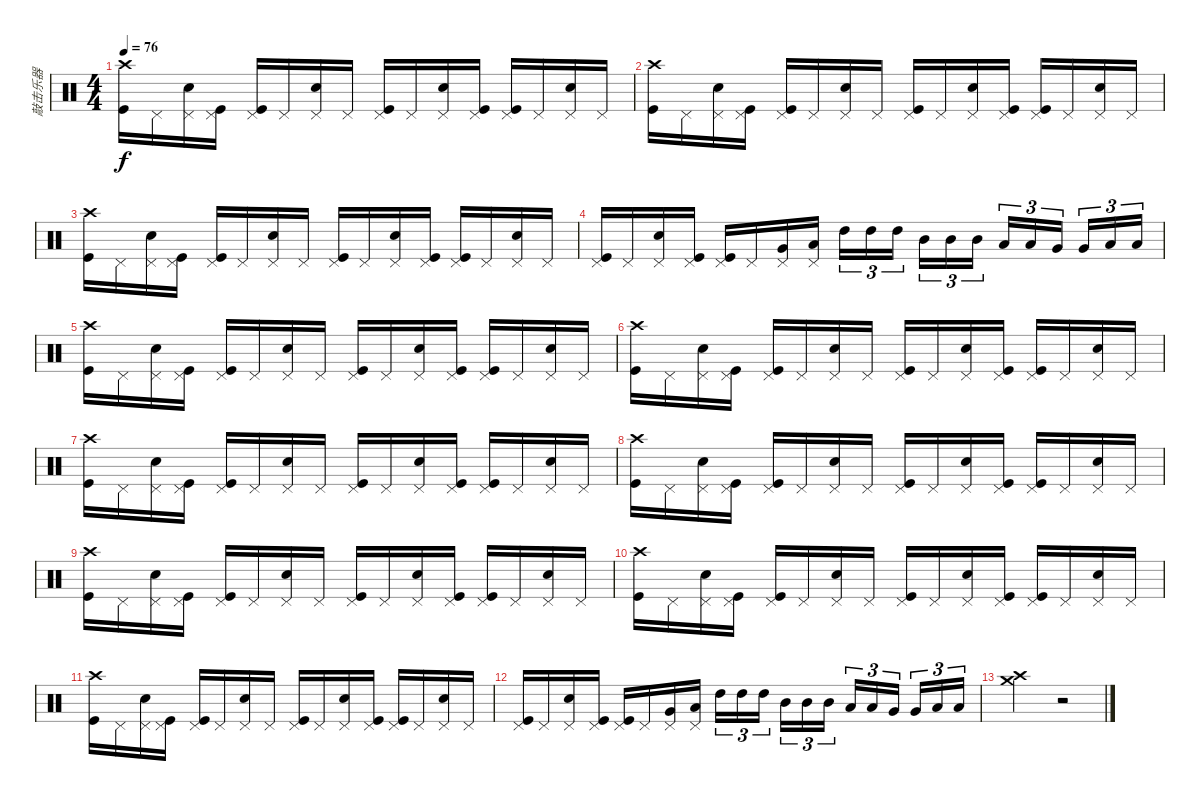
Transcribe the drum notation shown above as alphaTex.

\track ("敲击乐器" "敲击乐器") {instrument percussion}
\staff {score}
\articulation defaults
\ts (4 4)
\tempo 76
\clef neutral
\ks c
("Kick (hit)" "Crash high (hit)").16{dy f} "Pedal Hi-Hat (hit)".16 ("Snare (hit) 2" "Pedal Hi-Hat (hit)").16 ("Kick (hit)" "Pedal Hi-Hat (hit)").16 ("Kick (hit)" "Pedal Hi-Hat (hit)").16 "Pedal Hi-Hat (hit)".16 ("Snare (hit) 2" "Pedal Hi-Hat (hit)").16 "Pedal Hi-Hat (hit)".16 ("Kick (hit)" "Pedal Hi-Hat (hit)").16 "Pedal Hi-Hat (hit)".16 ("Snare (hit) 2" "Pedal Hi-Hat (hit)").16 ("Kick (hit)" "Pedal Hi-Hat (hit)").16 ("Kick (hit)" "Pedal Hi-Hat (hit)").16 "Pedal Hi-Hat (hit)".16 ("Snare (hit) 2" "Pedal Hi-Hat (hit)").16 "Pedal Hi-Hat (hit)".16 |
("Kick (hit)" "Crash high (hit)").16 "Pedal Hi-Hat (hit)".16 ("Snare (hit) 2" "Pedal Hi-Hat (hit)").16 ("Kick (hit)" "Pedal Hi-Hat (hit)").16 ("Kick (hit)" "Pedal Hi-Hat (hit)").16 "Pedal Hi-Hat (hit)".16 ("Snare (hit) 2" "Pedal Hi-Hat (hit)").16 "Pedal Hi-Hat (hit)".16 ("Kick (hit)" "Pedal Hi-Hat (hit)").16 "Pedal Hi-Hat (hit)".16 ("Snare (hit) 2" "Pedal Hi-Hat (hit)").16 ("Kick (hit)" "Pedal Hi-Hat (hit)").16 ("Kick (hit)" "Pedal Hi-Hat (hit)").16 "Pedal Hi-Hat (hit)".16 ("Snare (hit) 2" "Pedal Hi-Hat (hit)").16 "Pedal Hi-Hat (hit)".16 |
("Kick (hit)" "Crash high (hit)").16 "Pedal Hi-Hat (hit)".16 ("Snare (hit) 2" "Pedal Hi-Hat (hit)").16 ("Kick (hit)" "Pedal Hi-Hat (hit)").16 ("Kick (hit)" "Pedal Hi-Hat (hit)").16 "Pedal Hi-Hat (hit)".16 ("Snare (hit) 2" "Pedal Hi-Hat (hit)").16 "Pedal Hi-Hat (hit)".16 ("Kick (hit)" "Pedal Hi-Hat (hit)").16 "Pedal Hi-Hat (hit)".16 ("Snare (hit) 2" "Pedal Hi-Hat (hit)").16 ("Kick (hit)" "Pedal Hi-Hat (hit)").16 ("Kick (hit)" "Pedal Hi-Hat (hit)").16 "Pedal Hi-Hat (hit)".16 ("Snare (hit) 2" "Pedal Hi-Hat (hit)").16 "Pedal Hi-Hat (hit)".16 |
("Kick (hit)" "Pedal Hi-Hat (hit)").16 "Pedal Hi-Hat (hit)".16 ("Snare (hit) 2" "Pedal Hi-Hat (hit)").16 ("Kick (hit)" "Pedal Hi-Hat (hit)").16 ("Kick (hit)" "Pedal Hi-Hat (hit)").16 "Pedal Hi-Hat (hit)".16 ("Very Low Tom (hit)" "Pedal Hi-Hat (hit)").16 ("Low Floor Tom (hit)" "Pedal Hi-Hat (hit)").16 "High Tom (hit)".16{tu (3 2)} "High Tom (hit)".16{tu (3 2)} "High Tom (hit)".16{tu (3 2) beam splitsecondary} "Mid Tom (hit)".16{tu (3 2)} "Mid Tom (hit)".16{tu (3 2)} "Mid Tom (hit)".16{tu (3 2)} "Low Tom (hit)".16{tu (3 2)} "Low Tom (hit)".16{tu (3 2)} "Very Low Tom (hit)".16{tu (3 2) beam splitsecondary} "Very Low Tom (hit)".16{tu (3 2)} "Low Floor Tom (hit)".16{tu (3 2)} "Low Floor Tom (hit)".16{tu (3 2)} |
("Kick (hit)" "Crash high (hit)").16 "Pedal Hi-Hat (hit)".16 ("Snare (hit) 2" "Pedal Hi-Hat (hit)").16 ("Kick (hit)" "Pedal Hi-Hat (hit)").16 ("Kick (hit)" "Pedal Hi-Hat (hit)").16 "Pedal Hi-Hat (hit)".16 ("Snare (hit) 2" "Pedal Hi-Hat (hit)").16 "Pedal Hi-Hat (hit)".16 ("Kick (hit)" "Pedal Hi-Hat (hit)").16 "Pedal Hi-Hat (hit)".16 ("Snare (hit) 2" "Pedal Hi-Hat (hit)").16 ("Kick (hit)" "Pedal Hi-Hat (hit)").16 ("Kick (hit)" "Pedal Hi-Hat (hit)").16 "Pedal Hi-Hat (hit)".16 ("Snare (hit) 2" "Pedal Hi-Hat (hit)").16 "Pedal Hi-Hat (hit)".16 |
("Kick (hit)" "Crash high (hit)").16 "Pedal Hi-Hat (hit)".16 ("Snare (hit) 2" "Pedal Hi-Hat (hit)").16 ("Kick (hit)" "Pedal Hi-Hat (hit)").16 ("Kick (hit)" "Pedal Hi-Hat (hit)").16 "Pedal Hi-Hat (hit)".16 ("Snare (hit) 2" "Pedal Hi-Hat (hit)").16 "Pedal Hi-Hat (hit)".16 ("Kick (hit)" "Pedal Hi-Hat (hit)").16 "Pedal Hi-Hat (hit)".16 ("Snare (hit) 2" "Pedal Hi-Hat (hit)").16 ("Kick (hit)" "Pedal Hi-Hat (hit)").16 ("Kick (hit)" "Pedal Hi-Hat (hit)").16 "Pedal Hi-Hat (hit)".16 ("Snare (hit) 2" "Pedal Hi-Hat (hit)").16 "Pedal Hi-Hat (hit)".16 |
("Kick (hit)" "Crash high (hit)").16 "Pedal Hi-Hat (hit)".16 ("Snare (hit) 2" "Pedal Hi-Hat (hit)").16 ("Kick (hit)" "Pedal Hi-Hat (hit)").16 ("Kick (hit)" "Pedal Hi-Hat (hit)").16 "Pedal Hi-Hat (hit)".16 ("Snare (hit) 2" "Pedal Hi-Hat (hit)").16 "Pedal Hi-Hat (hit)".16 ("Kick (hit)" "Pedal Hi-Hat (hit)").16 "Pedal Hi-Hat (hit)".16 ("Snare (hit) 2" "Pedal Hi-Hat (hit)").16 ("Kick (hit)" "Pedal Hi-Hat (hit)").16 ("Kick (hit)" "Pedal Hi-Hat (hit)").16 "Pedal Hi-Hat (hit)".16 ("Snare (hit) 2" "Pedal Hi-Hat (hit)").16 "Pedal Hi-Hat (hit)".16 |
("Kick (hit)" "Crash high (hit)").16 "Pedal Hi-Hat (hit)".16 ("Snare (hit) 2" "Pedal Hi-Hat (hit)").16 ("Kick (hit)" "Pedal Hi-Hat (hit)").16 ("Kick (hit)" "Pedal Hi-Hat (hit)").16 "Pedal Hi-Hat (hit)".16 ("Snare (hit) 2" "Pedal Hi-Hat (hit)").16 "Pedal Hi-Hat (hit)".16 ("Kick (hit)" "Pedal Hi-Hat (hit)").16 "Pedal Hi-Hat (hit)".16 ("Snare (hit) 2" "Pedal Hi-Hat (hit)").16 ("Kick (hit)" "Pedal Hi-Hat (hit)").16 ("Kick (hit)" "Pedal Hi-Hat (hit)").16 "Pedal Hi-Hat (hit)".16 ("Snare (hit) 2" "Pedal Hi-Hat (hit)").16 "Pedal Hi-Hat (hit)".16 |
("Kick (hit)" "Crash high (hit)").16 "Pedal Hi-Hat (hit)".16 ("Snare (hit) 2" "Pedal Hi-Hat (hit)").16 ("Kick (hit)" "Pedal Hi-Hat (hit)").16 ("Kick (hit)" "Pedal Hi-Hat (hit)").16 "Pedal Hi-Hat (hit)".16 ("Snare (hit) 2" "Pedal Hi-Hat (hit)").16 "Pedal Hi-Hat (hit)".16 ("Kick (hit)" "Pedal Hi-Hat (hit)").16 "Pedal Hi-Hat (hit)".16 ("Snare (hit) 2" "Pedal Hi-Hat (hit)").16 ("Kick (hit)" "Pedal Hi-Hat (hit)").16 ("Kick (hit)" "Pedal Hi-Hat (hit)").16 "Pedal Hi-Hat (hit)".16 ("Snare (hit) 2" "Pedal Hi-Hat (hit)").16 "Pedal Hi-Hat (hit)".16 |
("Kick (hit)" "Crash high (hit)").16 "Pedal Hi-Hat (hit)".16 ("Snare (hit) 2" "Pedal Hi-Hat (hit)").16 ("Kick (hit)" "Pedal Hi-Hat (hit)").16 ("Kick (hit)" "Pedal Hi-Hat (hit)").16 "Pedal Hi-Hat (hit)".16 ("Snare (hit) 2" "Pedal Hi-Hat (hit)").16 "Pedal Hi-Hat (hit)".16 ("Kick (hit)" "Pedal Hi-Hat (hit)").16 "Pedal Hi-Hat (hit)".16 ("Snare (hit) 2" "Pedal Hi-Hat (hit)").16 ("Kick (hit)" "Pedal Hi-Hat (hit)").16 ("Kick (hit)" "Pedal Hi-Hat (hit)").16 "Pedal Hi-Hat (hit)".16 ("Snare (hit) 2" "Pedal Hi-Hat (hit)").16 "Pedal Hi-Hat (hit)".16 |
("Kick (hit)" "Crash high (hit)").16 "Pedal Hi-Hat (hit)".16 ("Snare (hit) 2" "Pedal Hi-Hat (hit)").16 ("Kick (hit)" "Pedal Hi-Hat (hit)").16 ("Kick (hit)" "Pedal Hi-Hat (hit)").16 "Pedal Hi-Hat (hit)".16 ("Snare (hit) 2" "Pedal Hi-Hat (hit)").16 "Pedal Hi-Hat (hit)".16 ("Kick (hit)" "Pedal Hi-Hat (hit)").16 "Pedal Hi-Hat (hit)".16 ("Snare (hit) 2" "Pedal Hi-Hat (hit)").16 ("Kick (hit)" "Pedal Hi-Hat (hit)").16 ("Kick (hit)" "Pedal Hi-Hat (hit)").16 "Pedal Hi-Hat (hit)".16 ("Snare (hit) 2" "Pedal Hi-Hat (hit)").16 "Pedal Hi-Hat (hit)".16 |
("Kick (hit)" "Pedal Hi-Hat (hit)").16 "Pedal Hi-Hat (hit)".16 ("Snare (hit) 2" "Pedal Hi-Hat (hit)").16 ("Kick (hit)" "Pedal Hi-Hat (hit)").16 ("Kick (hit)" "Pedal Hi-Hat (hit)").16 "Pedal Hi-Hat (hit)".16 ("Very Low Tom (hit)" "Pedal Hi-Hat (hit)").16 ("Low Floor Tom (hit)" "Pedal Hi-Hat (hit)").16 "High Tom (hit)".16{tu (3 2)} "High Tom (hit)".16{tu (3 2)} "High Tom (hit)".16{tu (3 2) beam splitsecondary} "Mid Tom (hit)".16{tu (3 2)} "Mid Tom (hit)".16{tu (3 2)} "Mid Tom (hit)".16{tu (3 2)} "Low Tom (hit)".16{tu (3 2)} "Low Tom (hit)".16{tu (3 2)} "Very Low Tom (hit)".16{tu (3 2) beam splitsecondary} "Very Low Tom (hit)".16{tu (3 2)} "Low Floor Tom (hit)".16{tu (3 2)} "Low Floor Tom (hit)".16{tu (3 2)} |
("Crash high (hit)" "Crash medium (hit)").2 r.2
